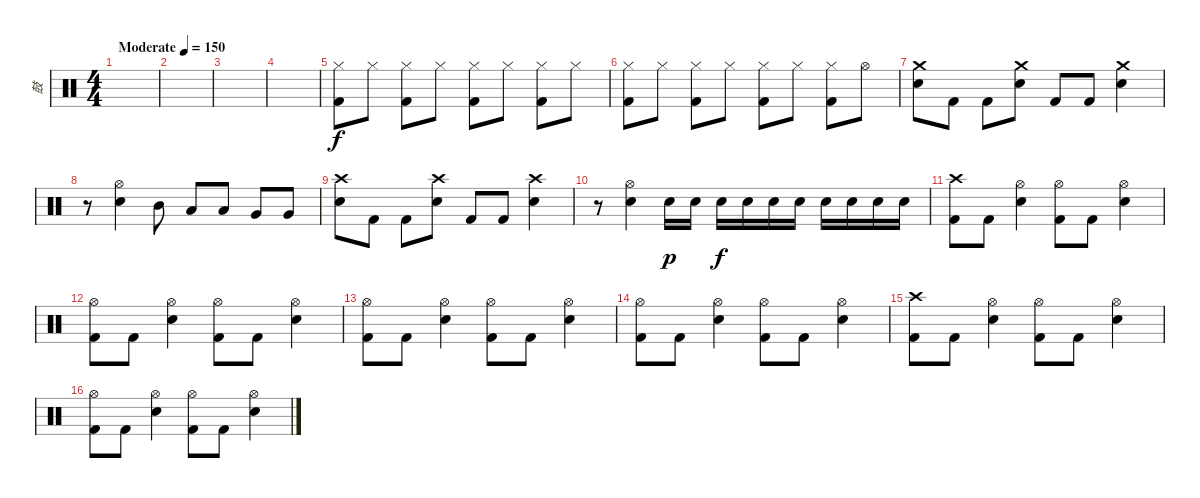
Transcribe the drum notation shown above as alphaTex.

\track ("鼓" "鼓") {instrument percussion}
\staff {score}
\articulation defaults
\ts (4 4)
\tempo (150 "Moderate")
\clef neutral
\ks c
|
|
|
|
("Hi-Hat (closed)" "Kick (hit) 2").8 "Hi-Hat (closed)".8 ("Hi-Hat (closed)" "Kick (hit) 2").8 "Hi-Hat (closed)".8 ("Hi-Hat (closed)" "Kick (hit) 2").8 "Hi-Hat (closed)".8 ("Hi-Hat (closed)" "Kick (hit) 2").8 "Hi-Hat (closed)".8 |
("Hi-Hat (closed)" "Kick (hit) 2").8 "Hi-Hat (closed)".8 ("Hi-Hat (closed)" "Kick (hit) 2").8 "Hi-Hat (closed)".8 ("Hi-Hat (closed)" "Kick (hit) 2").8 "Hi-Hat (closed)".8 ("Hi-Hat (closed)" "Kick (hit) 2").8 "Hi-Hat (open)".8 |
("Crash medium (hit)" "Snare (hit) 2").8 "Kick (hit) 2".8 "Kick (hit) 2".8 ("Crash medium (hit)" "Snare (hit) 2").8 "Kick (hit) 2".8 "Kick (hit) 2".8 ("Crash medium (hit)" "Snare (hit) 2").4 |
r.8 ("Hi-Hat (open)" "Snare (hit) 2").4 "Mid Tom (hit)".8 "Low Tom (hit)".8 "Low Tom (hit)".8 "Very Low Tom (hit)".8 "Very Low Tom (hit)".8 |
("Crash high (hit)" "Snare (hit) 2").8 "Kick (hit) 2".8 "Kick (hit) 2".8 ("Crash high (hit)" "Snare (hit) 2").8 "Kick (hit) 2".8 "Kick (hit) 2".8 ("Crash high (hit)" "Snare (hit) 2").4 |
r.8 ("Hi-Hat (open)" "Snare (hit) 2").4 "Snare (hit) 2".16{dy p} "Snare (hit) 2".16 "Snare (hit) 2".16{dy f} "Snare (hit) 2".16 "Snare (hit) 2".16 "Snare (hit) 2".16 "Snare (hit) 2".16 "Snare (hit) 2".16 "Snare (hit) 2".16 "Snare (hit) 2".16 |
("Crash high (hit)" "Kick (hit) 2").8 "Kick (hit) 2".8 ("Hi-Hat (open)" "Snare (hit) 2").4 ("Hi-Hat (open)" "Kick (hit) 2").8 "Kick (hit) 2".8 ("Hi-Hat (open)" "Snare (hit) 2").4 |
("Hi-Hat (open)" "Kick (hit) 2").8 "Kick (hit) 2".8 ("Hi-Hat (open)" "Snare (hit) 2").4 ("Hi-Hat (open)" "Kick (hit) 2").8 "Kick (hit) 2".8 ("Hi-Hat (open)" "Snare (hit) 2").4 |
("Hi-Hat (open)" "Kick (hit) 2").8 "Kick (hit) 2".8 ("Hi-Hat (open)" "Snare (hit) 2").4 ("Hi-Hat (open)" "Kick (hit) 2").8 "Kick (hit) 2".8 ("Hi-Hat (open)" "Snare (hit) 2").4 |
("Hi-Hat (open)" "Kick (hit) 2").8 "Kick (hit) 2".8 ("Hi-Hat (open)" "Snare (hit) 2").4 ("Hi-Hat (open)" "Kick (hit) 2").8 "Kick (hit) 2".8 ("Hi-Hat (open)" "Snare (hit) 2").4 |
("Crash high (hit)" "Kick (hit) 2").8 "Kick (hit) 2".8 ("Hi-Hat (open)" "Snare (hit) 2").4 ("Hi-Hat (open)" "Kick (hit) 2").8 "Kick (hit) 2".8 ("Hi-Hat (open)" "Snare (hit) 2").4 |
("Hi-Hat (open)" "Kick (hit) 2").8 "Kick (hit) 2".8 ("Hi-Hat (open)" "Snare (hit) 2").4 ("Hi-Hat (open)" "Kick (hit) 2").8 "Kick (hit) 2".8 ("Hi-Hat (open)" "Snare (hit) 2").4
